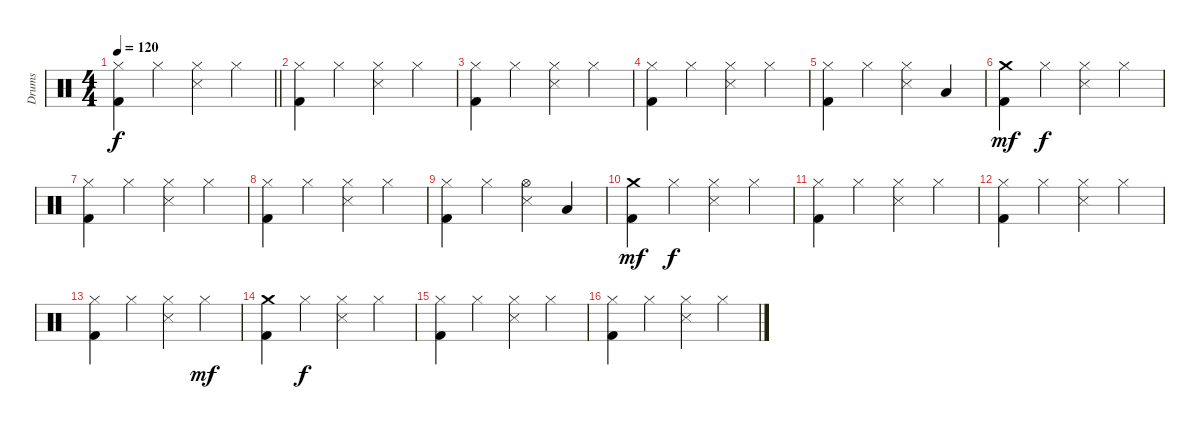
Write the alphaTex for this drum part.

\track ("Drums" "Drums") {instrument percussion}
\staff {score}
\articulation defaults
\ts (4 4)
\tempo 120
\clef neutral
\barLineRight lightlight
\ks c
("Hi-Hat (closed)" "Kick (hit) 2").4{dy f} "Hi-Hat (closed)".4 ("Hi-Hat (closed)" "Snare (side stick) 3").4 "Hi-Hat (closed)".4 |
("Hi-Hat (closed)" "Kick (hit) 2").4 "Hi-Hat (closed)".4 ("Hi-Hat (closed)" "Snare (side stick) 3").4 "Hi-Hat (closed)".4 |
("Hi-Hat (closed)" "Kick (hit) 2").4 "Hi-Hat (closed)".4 ("Hi-Hat (closed)" "Snare (side stick) 3").4 "Hi-Hat (closed)".4 |
("Hi-Hat (closed)" "Kick (hit) 2").4 "Hi-Hat (closed)".4 ("Hi-Hat (closed)" "Snare (side stick) 3").4 "Hi-Hat (closed)".4 |
("Hi-Hat (closed)" "Kick (hit) 2").4 "Hi-Hat (closed)".4 ("Hi-Hat (closed)" "Snare (side stick) 3").4 "Low Tom (hit)".4 |
("Crash medium (hit)" "Kick (hit) 2").4{dy mf} "Hi-Hat (closed)".4{dy f} ("Hi-Hat (closed)" "Snare (side stick) 3").4 "Hi-Hat (closed)".4 |
("Hi-Hat (closed)" "Kick (hit) 2").4 "Hi-Hat (closed)".4 ("Hi-Hat (closed)" "Snare (side stick) 3").4 "Hi-Hat (closed)".4 |
("Hi-Hat (closed)" "Kick (hit) 2").4 "Hi-Hat (closed)".4 ("Hi-Hat (closed)" "Snare (side stick) 3").4 "Hi-Hat (closed)".4 |
("Hi-Hat (closed)" "Kick (hit) 2").4 "Hi-Hat (closed)".4 ("Hi-Hat (open)" "Snare (side stick) 3").4 "Low Tom (hit)".4 |
("Crash medium (hit)" "Kick (hit) 2").4{dy mf} "Hi-Hat (closed)".4{dy f} ("Hi-Hat (closed)" "Snare (side stick) 3").4 "Hi-Hat (closed)".4 |
("Hi-Hat (closed)" "Kick (hit) 2").4 "Hi-Hat (closed)".4 ("Hi-Hat (closed)" "Snare (side stick) 3").4 "Hi-Hat (closed)".4 |
("Hi-Hat (closed)" "Kick (hit) 2").4 "Hi-Hat (closed)".4 ("Hi-Hat (closed)" "Snare (side stick) 3").4 "Hi-Hat (closed)".4 |
("Hi-Hat (closed)" "Kick (hit) 2").4 "Hi-Hat (closed)".4 ("Hi-Hat (closed)" "Snare (side stick) 3").4 "Hi-Hat (closed)".4{dy mf} |
("Crash medium (hit)" "Kick (hit) 2").4 "Hi-Hat (closed)".4{dy f} ("Hi-Hat (closed)" "Snare (side stick) 3").4 "Hi-Hat (closed)".4 |
("Hi-Hat (closed)" "Kick (hit) 2").4 "Hi-Hat (closed)".4 ("Hi-Hat (closed)" "Snare (side stick) 3").4 "Hi-Hat (closed)".4 |
("Hi-Hat (closed)" "Kick (hit) 2").4 "Hi-Hat (closed)".4 ("Hi-Hat (closed)" "Snare (side stick) 3").4 "Hi-Hat (closed)".4
